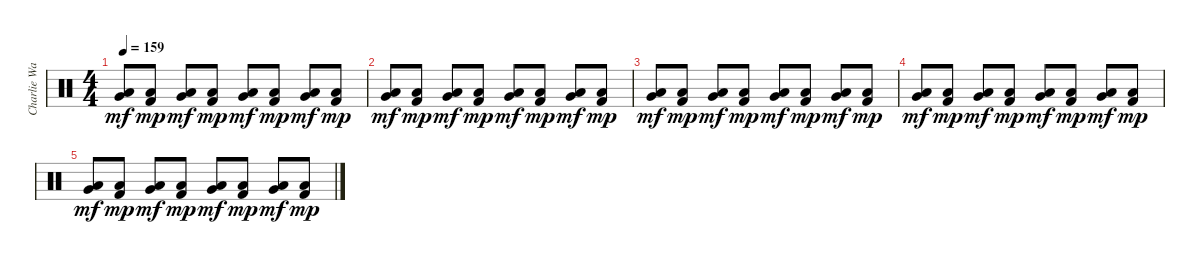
\track ("Charlie Watts (Drums)" "Charlie Wa") {instrument percussion}
\staff {score}
\articulation defaults
\ts (4 4)
\tempo 159
\clef neutral
\ks c
("Very Low Tom (hit)" "Low Floor Tom (hit)").8{dy mf} ("Low Floor Tom (hit)" "Kick (hit) 2").8{dy mp} ("Very Low Tom (hit)" "Low Floor Tom (hit)").8{dy mf} ("Low Floor Tom (hit)" "Kick (hit) 2").8{dy mp} ("Very Low Tom (hit)" "Low Floor Tom (hit)").8{dy mf} ("Low Floor Tom (hit)" "Kick (hit) 2").8{dy mp} ("Very Low Tom (hit)" "Low Floor Tom (hit)").8{dy mf} ("Low Floor Tom (hit)" "Kick (hit) 2").8{dy mp} |
("Very Low Tom (hit)" "Low Floor Tom (hit)").8{dy mf} ("Low Floor Tom (hit)" "Kick (hit) 2").8{dy mp} ("Very Low Tom (hit)" "Low Floor Tom (hit)").8{dy mf} ("Low Floor Tom (hit)" "Kick (hit) 2").8{dy mp} ("Very Low Tom (hit)" "Low Floor Tom (hit)").8{dy mf} ("Low Floor Tom (hit)" "Kick (hit) 2").8{dy mp} ("Very Low Tom (hit)" "Low Floor Tom (hit)").8{dy mf} ("Low Floor Tom (hit)" "Kick (hit) 2").8{dy mp} |
("Very Low Tom (hit)" "Low Floor Tom (hit)").8{dy mf} ("Low Floor Tom (hit)" "Kick (hit) 2").8{dy mp} ("Very Low Tom (hit)" "Low Floor Tom (hit)").8{dy mf} ("Low Floor Tom (hit)" "Kick (hit) 2").8{dy mp} ("Very Low Tom (hit)" "Low Floor Tom (hit)").8{dy mf} ("Low Floor Tom (hit)" "Kick (hit) 2").8{dy mp} ("Very Low Tom (hit)" "Low Floor Tom (hit)").8{dy mf} ("Low Floor Tom (hit)" "Kick (hit) 2").8{dy mp} |
("Very Low Tom (hit)" "Low Floor Tom (hit)").8{dy mf} ("Low Floor Tom (hit)" "Kick (hit) 2").8{dy mp} ("Very Low Tom (hit)" "Low Floor Tom (hit)").8{dy mf} ("Low Floor Tom (hit)" "Kick (hit) 2").8{dy mp} ("Very Low Tom (hit)" "Low Floor Tom (hit)").8{dy mf} ("Low Floor Tom (hit)" "Kick (hit) 2").8{dy mp} ("Very Low Tom (hit)" "Low Floor Tom (hit)").8{dy mf} ("Low Floor Tom (hit)" "Kick (hit) 2").8{dy mp} |
("Very Low Tom (hit)" "Low Floor Tom (hit)").8{dy mf} ("Low Floor Tom (hit)" "Kick (hit) 2").8{dy mp} ("Very Low Tom (hit)" "Low Floor Tom (hit)").8{dy mf} ("Low Floor Tom (hit)" "Kick (hit) 2").8{dy mp} ("Very Low Tom (hit)" "Low Floor Tom (hit)").8{dy mf} ("Low Floor Tom (hit)" "Kick (hit) 2").8{dy mp} ("Very Low Tom (hit)" "Low Floor Tom (hit)").8{dy mf} ("Low Floor Tom (hit)" "Kick (hit) 2").8{dy mp}
